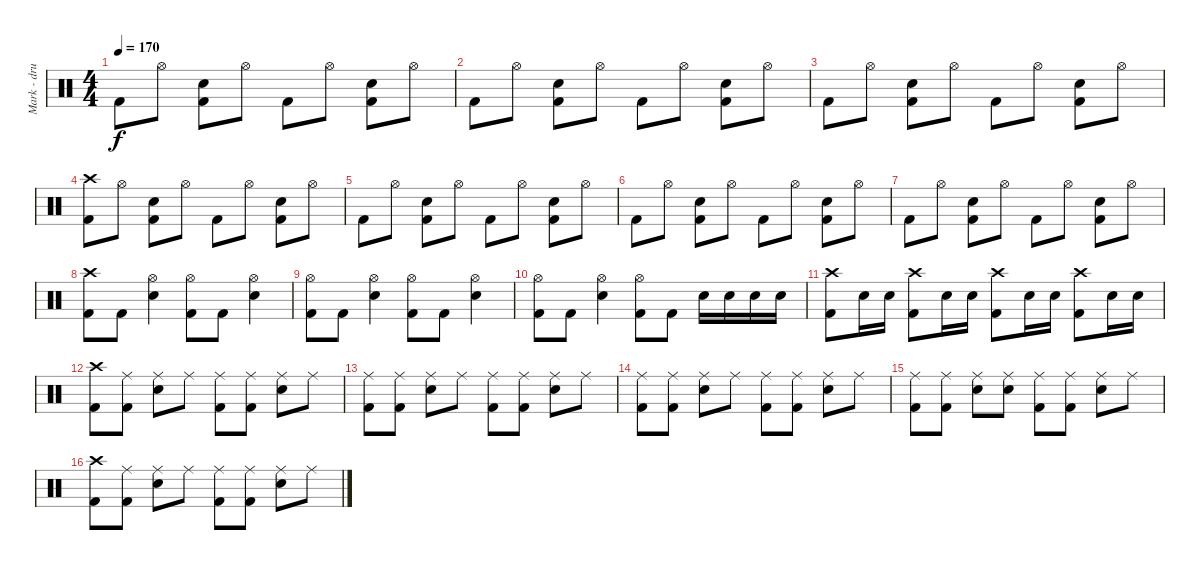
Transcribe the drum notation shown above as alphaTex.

\track ("Mark - drums" "Mark - dru") {instrument percussion}
\staff {score}
\articulation defaults
\ts (4 4)
\tempo 170
\clef neutral
\ks c "Kick (hit) 2".8{dy f} "Hi-Hat (open)".8
("Kick (hit) 2" "Electric Snare (hit)").8 "Hi-Hat (open)".8 "Kick (hit) 2".8 "Hi-Hat (open)".8 ("Kick (hit) 2" "Electric Snare (hit)").8 "Hi-Hat (open)".8 |
"Kick (hit) 2".8 "Hi-Hat (open)".8 ("Kick (hit) 2" "Electric Snare (hit)").8 "Hi-Hat (open)".8 "Kick (hit) 2".8 "Hi-Hat (open)".8 ("Kick (hit) 2" "Electric Snare (hit)").8 "Hi-Hat (open)".8 |
"Kick (hit) 2".8 "Hi-Hat (open)".8 ("Kick (hit) 2" "Electric Snare (hit)").8 "Hi-Hat (open)".8 "Kick (hit) 2".8 "Hi-Hat (open)".8 ("Kick (hit) 2" "Electric Snare (hit)").8 "Hi-Hat (open)".8 |
("Kick (hit) 2" "Crash high (hit)").8 "Hi-Hat (open)".8 ("Kick (hit) 2" "Electric Snare (hit)").8 "Hi-Hat (open)".8 "Kick (hit) 2".8 "Hi-Hat (open)".8 ("Kick (hit) 2" "Electric Snare (hit)").8 "Hi-Hat (open)".8 |
"Kick (hit) 2".8 "Hi-Hat (open)".8 ("Kick (hit) 2" "Electric Snare (hit)").8 "Hi-Hat (open)".8 "Kick (hit) 2".8 "Hi-Hat (open)".8 ("Kick (hit) 2" "Electric Snare (hit)").8 "Hi-Hat (open)".8 |
"Kick (hit) 2".8 "Hi-Hat (open)".8 ("Kick (hit) 2" "Electric Snare (hit)").8 "Hi-Hat (open)".8 "Kick (hit) 2".8 "Hi-Hat (open)".8 ("Kick (hit) 2" "Electric Snare (hit)").8 "Hi-Hat (open)".8 |
"Kick (hit) 2".8 "Hi-Hat (open)".8 ("Kick (hit) 2" "Electric Snare (hit)").8 "Hi-Hat (open)".8 "Kick (hit) 2".8 "Hi-Hat (open)".8 ("Kick (hit) 2" "Electric Snare (hit)").8 "Hi-Hat (open)".8 |
("Kick (hit) 2" "Crash high (hit)").8 "Kick (hit) 2".8 ("Electric Snare (hit)" "Hi-Hat (open)").4 ("Kick (hit) 2" "Hi-Hat (open)").8 "Kick (hit) 2".8 ("Electric Snare (hit)" "Hi-Hat (open)").4 |
("Kick (hit) 2" "Hi-Hat (open)").8 "Kick (hit) 2".8 ("Electric Snare (hit)" "Hi-Hat (open)").4 ("Kick (hit) 2" "Hi-Hat (open)").8 "Kick (hit) 2".8 ("Electric Snare (hit)" "Hi-Hat (open)").4 |
("Kick (hit) 2" "Hi-Hat (open)").8 "Kick (hit) 2".8 ("Electric Snare (hit)" "Hi-Hat (open)").4 ("Kick (hit) 2" "Hi-Hat (open)").8 "Kick (hit) 2".8 "Electric Snare (hit)".16 "Electric Snare (hit)".16 "Electric Snare (hit)".16 "Electric Snare (hit)".16 |
("Kick (hit) 2" "Crash high (hit)").8 "Electric Snare (hit)".16 "Electric Snare (hit)".16 ("Kick (hit) 2" "Crash high (hit)").8 "Electric Snare (hit)".16 "Electric Snare (hit)".16 ("Kick (hit) 2" "Crash high (hit)").8 "Electric Snare (hit)".16 "Electric Snare (hit)".16 ("Kick (hit) 2" "Crash high (hit)").8 "Electric Snare (hit)".16 "Electric Snare (hit)".16 |
("Kick (hit) 2" "Crash high (hit)").8 ("Kick (hit) 2" "Ride (middle)").8 ("Electric Snare (hit)" "Ride (middle)").8 "Ride (middle)".8 ("Kick (hit) 2" "Ride (middle)").8 ("Kick (hit) 2" "Ride (middle)").8 ("Electric Snare (hit)" "Ride (middle)").8 "Ride (middle)".8 |
("Kick (hit) 2" "Ride (middle)").8 ("Kick (hit) 2" "Ride (middle)").8 ("Electric Snare (hit)" "Ride (middle)").8 "Ride (middle)".8 ("Kick (hit) 2" "Ride (middle)").8 ("Kick (hit) 2" "Ride (middle)").8 ("Electric Snare (hit)" "Ride (middle)").8 "Ride (middle)".8 |
("Kick (hit) 2" "Ride (middle)").8 ("Kick (hit) 2" "Ride (middle)").8 ("Electric Snare (hit)" "Ride (middle)").8 "Ride (middle)".8 ("Kick (hit) 2" "Ride (middle)").8 ("Kick (hit) 2" "Ride (middle)").8 ("Electric Snare (hit)" "Ride (middle)").8 "Ride (middle)".8 |
("Kick (hit) 2" "Ride (middle)").8 ("Kick (hit) 2" "Ride (middle)").8 ("Electric Snare (hit)" "Ride (middle)").8 ("Electric Snare (hit)" "Ride (middle)").8 ("Kick (hit) 2" "Ride (middle)").8 ("Kick (hit) 2" "Ride (middle)").8 ("Electric Snare (hit)" "Ride (middle)").8 "Ride (middle)".8 |
("Kick (hit) 2" "Crash high (hit)").8 ("Kick (hit) 2" "Ride (middle)").8 ("Electric Snare (hit)" "Ride (middle)").8 "Ride (middle)".8 ("Kick (hit) 2" "Ride (middle)").8 ("Kick (hit) 2" "Ride (middle)").8 ("Electric Snare (hit)" "Ride (middle)").8 "Ride (middle)".8
